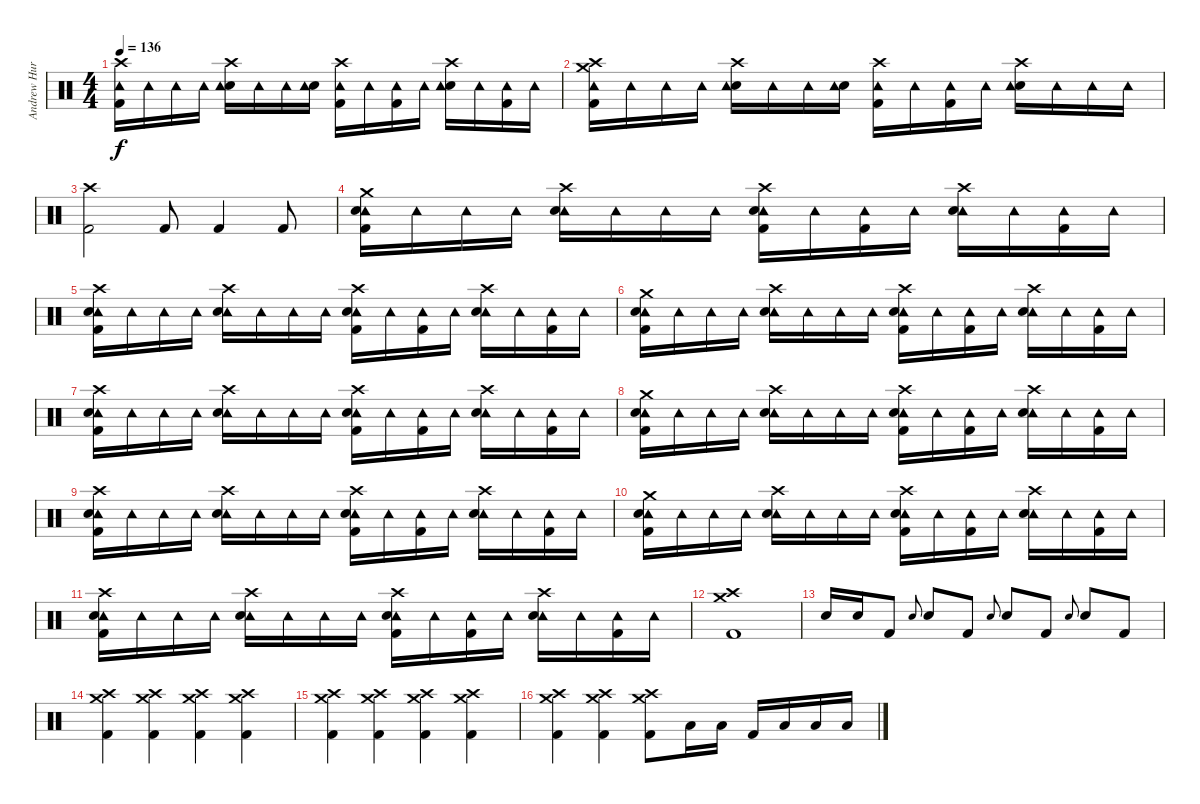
\track ("Andrew Hurley (Drums)" "Andrew Hur") {instrument percussion}
\staff {score}
\articulation defaults
\ts (4 4)
\tempo 136
\clef neutral
\ks c
("Crash high (hit)" "Kick (hit) 2" "Tambourine (hit)").16{dy f} "Tambourine (hit)".16 "Tambourine (hit)".16 "Tambourine (hit)".16 ("Crash high (hit)" "Snare (hit) 2" "Tambourine (hit)").16 "Tambourine (hit)".16 "Tambourine (hit)".16 ("Snare (hit) 2" "Tambourine (hit)").16 ("Crash high (hit)" "Kick (hit) 2" "Tambourine (hit)").16 "Tambourine (hit)".16 ("Kick (hit) 2" "Tambourine (hit)").16 "Tambourine (hit)".16 ("Crash high (hit)" "Snare (hit) 2" "Tambourine (hit)").16 "Tambourine (hit)".16 ("Kick (hit) 2" "Tambourine (hit)").16 "Tambourine (hit)".16 |
("Crash high (hit)" "Crash medium (hit)" "Kick (hit) 2" "Tambourine (hit)").16 "Tambourine (hit)".16 "Tambourine (hit)".16 "Tambourine (hit)".16 ("Crash high (hit)" "Snare (hit) 2" "Tambourine (hit)").16 "Tambourine (hit)".16 "Tambourine (hit)".16 ("Snare (hit) 2" "Tambourine (hit)").16 ("Crash high (hit)" "Kick (hit) 2" "Tambourine (hit)").16 "Tambourine (hit)".16 ("Kick (hit) 2" "Tambourine (hit)").16 "Tambourine (hit)".16 ("Crash high (hit)" "Snare (hit) 2" "Tambourine (hit)").16 "Tambourine (hit)".16 "Tambourine (hit)".16 "Tambourine (hit)".16 |
("Crash high (hit)" "Kick (hit) 2").2 "Kick (hit) 2".8 "Kick (hit) 2".4 "Kick (hit) 2".8 |
("Crash medium (hit)" "Tambourine (hit)" "Snare (hit) 2" "Kick (hit) 2").16 "Tambourine (hit)".16 "Tambourine (hit)".16 "Tambourine (hit)".16 ("Crash high (hit)" "Tambourine (hit)" "Snare (hit) 2").16 "Tambourine (hit)".16 "Tambourine (hit)".16 "Tambourine (hit)".16 ("Crash high (hit)" "Tambourine (hit)" "Snare (hit) 2" "Kick (hit) 2").16 "Tambourine (hit)".16 ("Tambourine (hit)" "Kick (hit) 2").16 "Tambourine (hit)".16 ("Crash high (hit)" "Tambourine (hit)" "Snare (hit) 2").16 "Tambourine (hit)".16 ("Tambourine (hit)" "Kick (hit) 2").16 "Tambourine (hit)".16 |
("Crash high (hit)" "Tambourine (hit)" "Snare (hit) 2" "Kick (hit) 2").16 "Tambourine (hit)".16 "Tambourine (hit)".16 "Tambourine (hit)".16 ("Crash high (hit)" "Tambourine (hit)" "Snare (hit) 2").16 "Tambourine (hit)".16 "Tambourine (hit)".16 "Tambourine (hit)".16 ("Crash high (hit)" "Tambourine (hit)" "Snare (hit) 2" "Kick (hit) 2").16 "Tambourine (hit)".16 ("Tambourine (hit)" "Kick (hit) 2").16 "Tambourine (hit)".16 ("Crash high (hit)" "Tambourine (hit)" "Snare (hit) 2").16 "Tambourine (hit)".16 ("Tambourine (hit)" "Kick (hit) 2").16 "Tambourine (hit)".16 |
("Crash medium (hit)" "Tambourine (hit)" "Snare (hit) 2" "Kick (hit) 2").16 "Tambourine (hit)".16 "Tambourine (hit)".16 "Tambourine (hit)".16 ("Crash high (hit)" "Tambourine (hit)" "Snare (hit) 2").16 "Tambourine (hit)".16 "Tambourine (hit)".16 "Tambourine (hit)".16 ("Crash high (hit)" "Tambourine (hit)" "Snare (hit) 2" "Kick (hit) 2").16 "Tambourine (hit)".16 ("Tambourine (hit)" "Kick (hit) 2").16 "Tambourine (hit)".16 ("Crash high (hit)" "Tambourine (hit)" "Snare (hit) 2").16 "Tambourine (hit)".16 ("Tambourine (hit)" "Kick (hit) 2").16 "Tambourine (hit)".16 |
("Crash high (hit)" "Tambourine (hit)" "Snare (hit) 2" "Kick (hit) 2").16 "Tambourine (hit)".16 "Tambourine (hit)".16 "Tambourine (hit)".16 ("Crash high (hit)" "Tambourine (hit)" "Snare (hit) 2").16 "Tambourine (hit)".16 "Tambourine (hit)".16 "Tambourine (hit)".16 ("Crash high (hit)" "Tambourine (hit)" "Snare (hit) 2" "Kick (hit) 2").16 "Tambourine (hit)".16 ("Tambourine (hit)" "Kick (hit) 2").16 "Tambourine (hit)".16 ("Crash high (hit)" "Tambourine (hit)" "Snare (hit) 2").16 "Tambourine (hit)".16 ("Tambourine (hit)" "Kick (hit) 2").16 "Tambourine (hit)".16 |
("Crash medium (hit)" "Tambourine (hit)" "Snare (hit) 2" "Kick (hit) 2").16 "Tambourine (hit)".16 "Tambourine (hit)".16 "Tambourine (hit)".16 ("Crash high (hit)" "Tambourine (hit)" "Snare (hit) 2").16 "Tambourine (hit)".16 "Tambourine (hit)".16 "Tambourine (hit)".16 ("Crash high (hit)" "Tambourine (hit)" "Snare (hit) 2" "Kick (hit) 2").16 "Tambourine (hit)".16 ("Tambourine (hit)" "Kick (hit) 2").16 "Tambourine (hit)".16 ("Crash high (hit)" "Tambourine (hit)" "Snare (hit) 2").16 "Tambourine (hit)".16 ("Tambourine (hit)" "Kick (hit) 2").16 "Tambourine (hit)".16 |
("Crash high (hit)" "Tambourine (hit)" "Snare (hit) 2" "Kick (hit) 2").16 "Tambourine (hit)".16 "Tambourine (hit)".16 "Tambourine (hit)".16 ("Crash high (hit)" "Tambourine (hit)" "Snare (hit) 2").16 "Tambourine (hit)".16 "Tambourine (hit)".16 "Tambourine (hit)".16 ("Crash high (hit)" "Tambourine (hit)" "Snare (hit) 2" "Kick (hit) 2").16 "Tambourine (hit)".16 ("Tambourine (hit)" "Kick (hit) 2").16 "Tambourine (hit)".16 ("Crash high (hit)" "Tambourine (hit)" "Snare (hit) 2").16 "Tambourine (hit)".16 ("Tambourine (hit)" "Kick (hit) 2").16 "Tambourine (hit)".16 |
("Crash medium (hit)" "Tambourine (hit)" "Snare (hit) 2" "Kick (hit) 2").16 "Tambourine (hit)".16 "Tambourine (hit)".16 "Tambourine (hit)".16 ("Crash high (hit)" "Tambourine (hit)" "Snare (hit) 2").16 "Tambourine (hit)".16 "Tambourine (hit)".16 "Tambourine (hit)".16 ("Crash high (hit)" "Tambourine (hit)" "Snare (hit) 2" "Kick (hit) 2").16 "Tambourine (hit)".16 ("Tambourine (hit)" "Kick (hit) 2").16 "Tambourine (hit)".16 ("Crash high (hit)" "Tambourine (hit)" "Snare (hit) 2").16 "Tambourine (hit)".16 ("Tambourine (hit)" "Kick (hit) 2").16 "Tambourine (hit)".16 |
("Crash high (hit)" "Tambourine (hit)" "Snare (hit) 2" "Kick (hit) 2").16 "Tambourine (hit)".16 "Tambourine (hit)".16 "Tambourine (hit)".16 ("Crash high (hit)" "Tambourine (hit)" "Snare (hit) 2").16 "Tambourine (hit)".16 "Tambourine (hit)".16 "Tambourine (hit)".16 ("Crash high (hit)" "Tambourine (hit)" "Snare (hit) 2" "Kick (hit) 2").16 "Tambourine (hit)".16 ("Tambourine (hit)" "Kick (hit) 2").16 "Tambourine (hit)".16 ("Crash high (hit)" "Tambourine (hit)" "Snare (hit) 2").16 "Tambourine (hit)".16 ("Tambourine (hit)" "Kick (hit) 2").16 "Tambourine (hit)".16 |
("Crash high (hit)" "Crash medium (hit)" "Kick (hit) 2").1 |
"Snare (hit) 2".16 "Snare (hit) 2".16 "Kick (hit) 2".8 "Snare (hit) 2".8{gr onbeat} "Snare (hit) 2".8 "Kick (hit) 2".8 "Snare (hit) 2".8{gr onbeat} "Snare (hit) 2".8 "Kick (hit) 2".8 "Snare (hit) 2".8{gr onbeat} "Snare (hit) 2".8 "Kick (hit) 2".8 |
("Crash high (hit)" "Crash medium (hit)" "Kick (hit) 2").4 ("Crash high (hit)" "Crash medium (hit)" "Kick (hit) 2").4 ("Crash high (hit)" "Crash medium (hit)" "Kick (hit) 2").4 ("Crash high (hit)" "Crash medium (hit)" "Kick (hit) 2").4 |
("Crash high (hit)" "Crash medium (hit)" "Kick (hit) 2").4 ("Crash high (hit)" "Crash medium (hit)" "Kick (hit) 2").4 ("Crash high (hit)" "Crash medium (hit)" "Kick (hit) 2").4 ("Crash high (hit)" "Crash medium (hit)" "Kick (hit) 2").4 |
("Crash high (hit)" "Crash medium (hit)" "Kick (hit) 2").4 ("Crash high (hit)" "Crash medium (hit)" "Kick (hit) 2").4 ("Crash high (hit)" "Crash medium (hit)" "Kick (hit) 2").8 "Low Tom (hit)".16 "Low Tom (hit)".16 "Kick (hit) 2".16 "Low Tom (hit)".16 "Low Tom (hit)".16 "Low Tom (hit)".16
